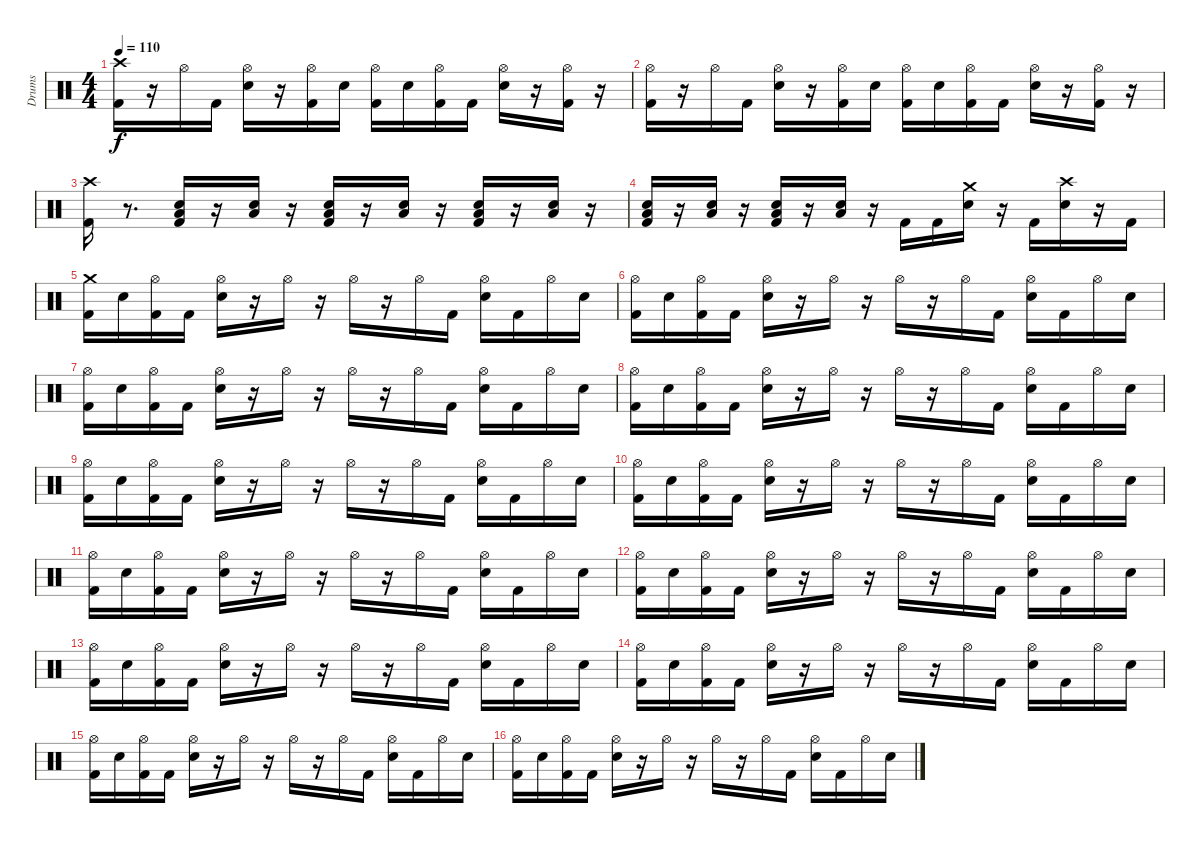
\track ("Drums" "Drums") {instrument percussion}
\staff {score}
\articulation defaults
\ts (4 4)
\tempo 110
\clef neutral
\ks c
("Kick (hit) 2" "Crash high (hit)").16{dy f} r.16 "Hi-Hat (open)".16 "Kick (hit) 2".16 ("Hi-Hat (open)" "Electric Snare (hit)").16 r.16 ("Hi-Hat (open)" "Kick (hit) 2").16 "Electric Snare (hit)".16 ("Hi-Hat (open)" "Kick (hit) 2").16 "Electric Snare (hit)".16 ("Hi-Hat (open)" "Kick (hit) 2").16 "Kick (hit) 2".16 ("Hi-Hat (open)" "Electric Snare (hit)").16 r.16 ("Hi-Hat (open)" "Kick (hit) 2").16 r.16 |
("Kick (hit) 2" "Hi-Hat (open)").16 r.16 "Hi-Hat (open)".16 "Kick (hit) 2".16 ("Hi-Hat (open)" "Electric Snare (hit)").16 r.16 ("Hi-Hat (open)" "Kick (hit) 2").16 "Electric Snare (hit)".16 ("Hi-Hat (open)" "Kick (hit) 2").16 "Electric Snare (hit)".16 ("Hi-Hat (open)" "Kick (hit) 2").16 "Kick (hit) 2".16 ("Hi-Hat (open)" "Electric Snare (hit)").16 r.16 ("Hi-Hat (open)" "Kick (hit) 2").16 r.16 |
("Kick (hit) 2" "Crash high (hit)").16 r.8{d} ("Low Floor Tom (hit)" "Kick (hit) 2" "Electric Snare (hit)").16 r.16 ("Low Floor Tom (hit)" "Electric Snare (hit)").16 r.16 ("Kick (hit) 2" "Low Floor Tom (hit)" "Electric Snare (hit)").16 r.16 ("Low Floor Tom (hit)" "Electric Snare (hit)").16 r.16 ("Kick (hit) 2" "Low Floor Tom (hit)" "Electric Snare (hit)").16 r.16 ("Low Floor Tom (hit)" "Electric Snare (hit)").16 r.16 |
("Kick (hit) 2" "Low Floor Tom (hit)" "Electric Snare (hit)").16 r.16 ("Low Floor Tom (hit)" "Electric Snare (hit)").16 r.16 ("Kick (hit) 2" "Low Floor Tom (hit)" "Electric Snare (hit)").16 r.16 ("Low Floor Tom (hit)" "Electric Snare (hit)").16 r.16 "Kick (hit) 2".16 "Kick (hit) 2".16 ("Electric Snare (hit)" "Crash medium (hit)").16 r.16 "Kick (hit) 2".16 ("Electric Snare (hit)" "Crash high (hit)").16 r.16 "Kick (hit) 2".16 |
("Kick (hit) 2" "Crash medium (hit)").16 "Electric Snare (hit)".16 ("Kick (hit) 2" "Hi-Hat (open)").16 "Kick (hit) 2".16 ("Electric Snare (hit)" "Hi-Hat (open)").16 r.16 "Hi-Hat (open)".16 r.16 "Hi-Hat (open)".16 r.16 "Hi-Hat (open)".16 "Kick (hit) 2".16 ("Electric Snare (hit)" "Hi-Hat (open)").16 "Kick (hit) 2".16 "Hi-Hat (open)".16 "Electric Snare (hit)".16 |
("Kick (hit) 2" "Hi-Hat (open)").16 "Electric Snare (hit)".16 ("Kick (hit) 2" "Hi-Hat (open)").16 "Kick (hit) 2".16 ("Electric Snare (hit)" "Hi-Hat (open)").16 r.16 "Hi-Hat (open)".16 r.16 "Hi-Hat (open)".16 r.16 "Hi-Hat (open)".16 "Kick (hit) 2".16 ("Electric Snare (hit)" "Hi-Hat (open)").16 "Kick (hit) 2".16 "Hi-Hat (open)".16 "Electric Snare (hit)".16 |
("Kick (hit) 2" "Hi-Hat (open)").16 "Electric Snare (hit)".16 ("Kick (hit) 2" "Hi-Hat (open)").16 "Kick (hit) 2".16 ("Electric Snare (hit)" "Hi-Hat (open)").16 r.16 "Hi-Hat (open)".16 r.16 "Hi-Hat (open)".16 r.16 "Hi-Hat (open)".16 "Kick (hit) 2".16 ("Electric Snare (hit)" "Hi-Hat (open)").16 "Kick (hit) 2".16 "Hi-Hat (open)".16 "Electric Snare (hit)".16 |
("Kick (hit) 2" "Hi-Hat (open)").16 "Electric Snare (hit)".16 ("Kick (hit) 2" "Hi-Hat (open)").16 "Kick (hit) 2".16 ("Electric Snare (hit)" "Hi-Hat (open)").16 r.16 "Hi-Hat (open)".16 r.16 "Hi-Hat (open)".16 r.16 "Hi-Hat (open)".16 "Kick (hit) 2".16 ("Electric Snare (hit)" "Hi-Hat (open)").16 "Kick (hit) 2".16 "Hi-Hat (open)".16 "Electric Snare (hit)".16 |
("Kick (hit) 2" "Hi-Hat (open)").16 "Electric Snare (hit)".16 ("Kick (hit) 2" "Hi-Hat (open)").16 "Kick (hit) 2".16 ("Electric Snare (hit)" "Hi-Hat (open)").16 r.16 "Hi-Hat (open)".16 r.16 "Hi-Hat (open)".16 r.16 "Hi-Hat (open)".16 "Kick (hit) 2".16 ("Electric Snare (hit)" "Hi-Hat (open)").16 "Kick (hit) 2".16 "Hi-Hat (open)".16 "Electric Snare (hit)".16 |
("Kick (hit) 2" "Hi-Hat (open)").16 "Electric Snare (hit)".16 ("Kick (hit) 2" "Hi-Hat (open)").16 "Kick (hit) 2".16 ("Electric Snare (hit)" "Hi-Hat (open)").16 r.16 "Hi-Hat (open)".16 r.16 "Hi-Hat (open)".16 r.16 "Hi-Hat (open)".16 "Kick (hit) 2".16 ("Electric Snare (hit)" "Hi-Hat (open)").16 "Kick (hit) 2".16 "Hi-Hat (open)".16 "Electric Snare (hit)".16 |
("Kick (hit) 2" "Hi-Hat (open)").16 "Electric Snare (hit)".16 ("Kick (hit) 2" "Hi-Hat (open)").16 "Kick (hit) 2".16 ("Electric Snare (hit)" "Hi-Hat (open)").16 r.16 "Hi-Hat (open)".16 r.16 "Hi-Hat (open)".16 r.16 "Hi-Hat (open)".16 "Kick (hit) 2".16 ("Electric Snare (hit)" "Hi-Hat (open)").16 "Kick (hit) 2".16 "Hi-Hat (open)".16 "Electric Snare (hit)".16 |
("Kick (hit) 2" "Hi-Hat (open)").16 "Electric Snare (hit)".16 ("Kick (hit) 2" "Hi-Hat (open)").16 "Kick (hit) 2".16 ("Electric Snare (hit)" "Hi-Hat (open)").16 r.16 "Hi-Hat (open)".16 r.16 "Hi-Hat (open)".16 r.16 "Hi-Hat (open)".16 "Kick (hit) 2".16 ("Electric Snare (hit)" "Hi-Hat (open)").16 "Kick (hit) 2".16 "Hi-Hat (open)".16 "Electric Snare (hit)".16 |
("Kick (hit) 2" "Hi-Hat (open)").16 "Electric Snare (hit)".16 ("Kick (hit) 2" "Hi-Hat (open)").16 "Kick (hit) 2".16 ("Electric Snare (hit)" "Hi-Hat (open)").16 r.16 "Hi-Hat (open)".16 r.16 "Hi-Hat (open)".16 r.16 "Hi-Hat (open)".16 "Kick (hit) 2".16 ("Electric Snare (hit)" "Hi-Hat (open)").16 "Kick (hit) 2".16 "Hi-Hat (open)".16 "Electric Snare (hit)".16 |
("Kick (hit) 2" "Hi-Hat (open)").16 "Electric Snare (hit)".16 ("Kick (hit) 2" "Hi-Hat (open)").16 "Kick (hit) 2".16 ("Electric Snare (hit)" "Hi-Hat (open)").16 r.16 "Hi-Hat (open)".16 r.16 "Hi-Hat (open)".16 r.16 "Hi-Hat (open)".16 "Kick (hit) 2".16 ("Electric Snare (hit)" "Hi-Hat (open)").16 "Kick (hit) 2".16 "Hi-Hat (open)".16 "Electric Snare (hit)".16 |
("Kick (hit) 2" "Hi-Hat (open)").16 "Electric Snare (hit)".16 ("Kick (hit) 2" "Hi-Hat (open)").16 "Kick (hit) 2".16 ("Electric Snare (hit)" "Hi-Hat (open)").16 r.16 "Hi-Hat (open)".16 r.16 "Hi-Hat (open)".16 r.16 "Hi-Hat (open)".16 "Kick (hit) 2".16 ("Electric Snare (hit)" "Hi-Hat (open)").16 "Kick (hit) 2".16 "Hi-Hat (open)".16 "Electric Snare (hit)".16 |
("Kick (hit) 2" "Hi-Hat (open)").16 "Electric Snare (hit)".16 ("Kick (hit) 2" "Hi-Hat (open)").16 "Kick (hit) 2".16 ("Electric Snare (hit)" "Hi-Hat (open)").16 r.16 "Hi-Hat (open)".16 r.16 "Hi-Hat (open)".16 r.16 "Hi-Hat (open)".16 "Kick (hit) 2".16 ("Electric Snare (hit)" "Hi-Hat (open)").16 "Kick (hit) 2".16 "Hi-Hat (open)".16 "Electric Snare (hit)".16
